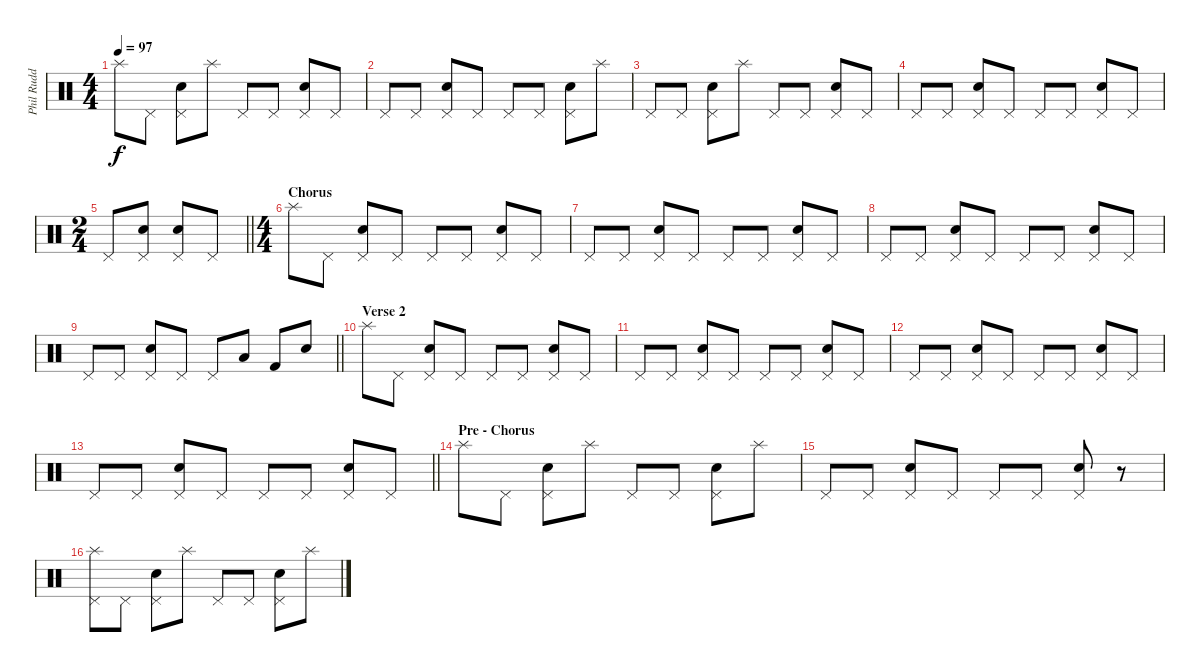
\track ("Phil Rudd - Drums" "Phil Rudd ") {instrument percussion}
\staff {score}
\articulation defaults
\ts (4 4)
\tempo 97
\clef neutral
\ks c "Splash (hit)".8{dy f} "Pedal Hi-Hat (hit)".8
("Pedal Hi-Hat (hit)" "Snare (hit) 2").8 "Splash (hit)".8 "Pedal Hi-Hat (hit)".8 "Pedal Hi-Hat (hit)".8 ("Pedal Hi-Hat (hit)" "Snare (hit) 2").8 "Pedal Hi-Hat (hit)".8 |
"Pedal Hi-Hat (hit)".8 "Pedal Hi-Hat (hit)".8 ("Pedal Hi-Hat (hit)" "Snare (hit) 2").8 "Pedal Hi-Hat (hit)".8 "Pedal Hi-Hat (hit)".8 "Pedal Hi-Hat (hit)".8 ("Pedal Hi-Hat (hit)" "Snare (hit) 2").8 "Splash (hit)".8 |
"Pedal Hi-Hat (hit)".8 "Pedal Hi-Hat (hit)".8 ("Pedal Hi-Hat (hit)" "Snare (hit) 2").8 "Splash (hit)".8 "Pedal Hi-Hat (hit)".8 "Pedal Hi-Hat (hit)".8 ("Pedal Hi-Hat (hit)" "Snare (hit) 2").8 "Pedal Hi-Hat (hit)".8 |
"Pedal Hi-Hat (hit)".8 "Pedal Hi-Hat (hit)".8 ("Pedal Hi-Hat (hit)" "Snare (hit) 2").8 "Pedal Hi-Hat (hit)".8 "Pedal Hi-Hat (hit)".8 "Pedal Hi-Hat (hit)".8 ("Pedal Hi-Hat (hit)" "Snare (hit) 2").8 "Pedal Hi-Hat (hit)".8 |
\ts (2 4)
\barLineRight lightlight "Pedal Hi-Hat (hit)".8
("Pedal Hi-Hat (hit)" "Snare (hit) 2").8 ("Pedal Hi-Hat (hit)" "Snare (hit) 2").8 "Pedal Hi-Hat (hit)".8 |
\ts (4 4)
\section ("" "Chorus")
"Splash (hit)".8 "Pedal Hi-Hat (hit)".8 ("Pedal Hi-Hat (hit)" "Snare (hit) 2").8 "Pedal Hi-Hat (hit)".8 "Pedal Hi-Hat (hit)".8 "Pedal Hi-Hat (hit)".8 ("Pedal Hi-Hat (hit)" "Snare (hit) 2").8 "Pedal Hi-Hat (hit)".8 |
"Pedal Hi-Hat (hit)".8 "Pedal Hi-Hat (hit)".8 ("Pedal Hi-Hat (hit)" "Snare (hit) 2").8 "Pedal Hi-Hat (hit)".8 "Pedal Hi-Hat (hit)".8 "Pedal Hi-Hat (hit)".8 ("Pedal Hi-Hat (hit)" "Snare (hit) 2").8 "Pedal Hi-Hat (hit)".8 |
"Pedal Hi-Hat (hit)".8 "Pedal Hi-Hat (hit)".8 ("Pedal Hi-Hat (hit)" "Snare (hit) 2").8 "Pedal Hi-Hat (hit)".8 "Pedal Hi-Hat (hit)".8 "Pedal Hi-Hat (hit)".8 ("Pedal Hi-Hat (hit)" "Snare (hit) 2").8 "Pedal Hi-Hat (hit)".8 |
\barLineRight lightlight "Pedal Hi-Hat (hit)".8 "Pedal Hi-Hat (hit)".8
("Pedal Hi-Hat (hit)" "Snare (hit) 2").8 "Pedal Hi-Hat (hit)".8 "Pedal Hi-Hat (hit)".8 "Low Floor Tom (hit)".8 "Kick (hit) 2".8 "Hand Clap (hit)".8 |
\section ("" "Verse 2")
"Splash (hit)".8 "Pedal Hi-Hat (hit)".8 ("Pedal Hi-Hat (hit)" "Snare (hit) 2").8 "Pedal Hi-Hat (hit)".8 "Pedal Hi-Hat (hit)".8 "Pedal Hi-Hat (hit)".8 ("Pedal Hi-Hat (hit)" "Snare (hit) 2").8 "Pedal Hi-Hat (hit)".8 |
"Pedal Hi-Hat (hit)".8 "Pedal Hi-Hat (hit)".8 ("Pedal Hi-Hat (hit)" "Snare (hit) 2").8 "Pedal Hi-Hat (hit)".8 "Pedal Hi-Hat (hit)".8 "Pedal Hi-Hat (hit)".8 ("Pedal Hi-Hat (hit)" "Snare (hit) 2").8 "Pedal Hi-Hat (hit)".8 |
"Pedal Hi-Hat (hit)".8 "Pedal Hi-Hat (hit)".8 ("Pedal Hi-Hat (hit)" "Snare (hit) 2").8 "Pedal Hi-Hat (hit)".8 "Pedal Hi-Hat (hit)".8 "Pedal Hi-Hat (hit)".8 ("Pedal Hi-Hat (hit)" "Snare (hit) 2").8 "Pedal Hi-Hat (hit)".8 |
\barLineRight lightlight "Pedal Hi-Hat (hit)".8 "Pedal Hi-Hat (hit)".8
("Pedal Hi-Hat (hit)" "Snare (hit) 2").8 "Pedal Hi-Hat (hit)".8 "Pedal Hi-Hat (hit)".8 "Pedal Hi-Hat (hit)".8 ("Pedal Hi-Hat (hit)" "Snare (hit) 2").8 "Pedal Hi-Hat (hit)".8 |
\section ("" "Pre - Chorus")
"Splash (hit)".8 "Pedal Hi-Hat (hit)".8 ("Pedal Hi-Hat (hit)" "Snare (hit) 2").8 "Splash (hit)".8 "Pedal Hi-Hat (hit)".8 "Pedal Hi-Hat (hit)".8 ("Pedal Hi-Hat (hit)" "Snare (hit) 2").8 "Splash (hit)".8 |
"Pedal Hi-Hat (hit)".8 "Pedal Hi-Hat (hit)".8 ("Pedal Hi-Hat (hit)" "Snare (hit) 2").8 "Pedal Hi-Hat (hit)".8 "Pedal Hi-Hat (hit)".8 "Pedal Hi-Hat (hit)".8 ("Pedal Hi-Hat (hit)" "Snare (hit) 2").8 r.8 |
("Pedal Hi-Hat (hit)" "Splash (hit)").8 "Pedal Hi-Hat (hit)".8 ("Pedal Hi-Hat (hit)" "Snare (hit) 2").8 "Splash (hit)".8 "Pedal Hi-Hat (hit)".8 "Pedal Hi-Hat (hit)".8 ("Pedal Hi-Hat (hit)" "Snare (hit) 2").8 "Splash (hit)".8
